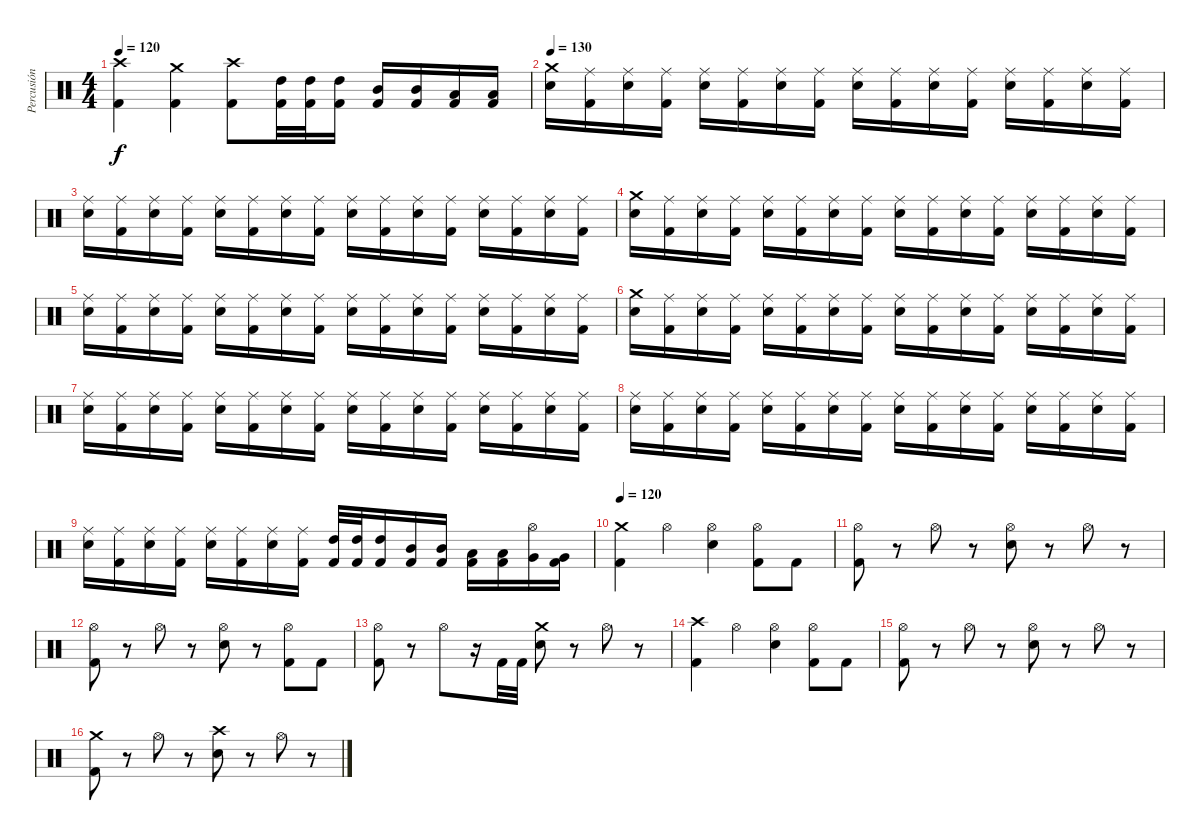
\track ("Percusión" "Percusión") {instrument percussion}
\staff {score}
\articulation defaults
\ts (4 4)
\tempo 120
\clef neutral
\ks c
("Crash high (hit)" "Kick (hit) 2").4{dy f} ("Crash medium (hit)" "Kick (hit) 2").4 ("Crash high (hit)" "Kick (hit) 2").8 ("High Tom (hit)" "Kick (hit) 2").32 ("High Tom (hit)" "Kick (hit) 2").32 ("High Tom (hit)" "Kick (hit) 2").16 ("Mid Tom (hit)" "Kick (hit) 2").16 ("Mid Tom (hit)" "Kick (hit) 2").16 ("Low Tom (hit)" "Kick (hit) 2").16 ("Low Tom (hit)" "Kick (hit) 2").16 |
\tempo 130
("Crash medium (hit)" "Electric Snare (hit)").16 ("Ride (middle)" "Kick (hit) 2").16 ("Ride (middle)" "Electric Snare (hit)").16 ("Ride (middle)" "Kick (hit) 2").16 ("Ride (middle)" "Electric Snare (hit)").16 ("Ride (middle)" "Kick (hit) 2").16 ("Ride (middle)" "Electric Snare (hit)").16 ("Ride (middle)" "Kick (hit) 2").16 ("Ride (middle)" "Electric Snare (hit)").16 ("Ride (middle)" "Kick (hit) 2").16 ("Ride (middle)" "Electric Snare (hit)").16 ("Ride (middle)" "Kick (hit) 2").16 ("Ride (middle)" "Electric Snare (hit)").16 ("Ride (middle)" "Kick (hit) 2").16 ("Ride (middle)" "Electric Snare (hit)").16 ("Ride (middle)" "Kick (hit) 2").16 |
("Ride (middle)" "Electric Snare (hit)").16 ("Ride (middle)" "Kick (hit) 2").16 ("Ride (middle)" "Electric Snare (hit)").16 ("Ride (middle)" "Kick (hit) 2").16 ("Ride (middle)" "Electric Snare (hit)").16 ("Ride (middle)" "Kick (hit) 2").16 ("Ride (middle)" "Electric Snare (hit)").16 ("Ride (middle)" "Kick (hit) 2").16 ("Ride (middle)" "Electric Snare (hit)").16 ("Ride (middle)" "Kick (hit) 2").16 ("Ride (middle)" "Electric Snare (hit)").16 ("Ride (middle)" "Kick (hit) 2").16 ("Ride (middle)" "Electric Snare (hit)").16 ("Ride (middle)" "Kick (hit) 2").16 ("Ride (middle)" "Electric Snare (hit)").16 ("Ride (middle)" "Kick (hit) 2").16 |
("Crash medium (hit)" "Electric Snare (hit)").16 ("Ride (middle)" "Kick (hit) 2").16 ("Ride (middle)" "Electric Snare (hit)").16 ("Ride (middle)" "Kick (hit) 2").16 ("Ride (middle)" "Electric Snare (hit)").16 ("Ride (middle)" "Kick (hit) 2").16 ("Ride (middle)" "Electric Snare (hit)").16 ("Ride (middle)" "Kick (hit) 2").16 ("Ride (middle)" "Electric Snare (hit)").16 ("Ride (middle)" "Kick (hit) 2").16 ("Ride (middle)" "Electric Snare (hit)").16 ("Ride (middle)" "Kick (hit) 2").16 ("Ride (middle)" "Electric Snare (hit)").16 ("Ride (middle)" "Kick (hit) 2").16 ("Ride (middle)" "Electric Snare (hit)").16 ("Ride (middle)" "Kick (hit) 2").16 |
("Ride (middle)" "Electric Snare (hit)").16 ("Ride (middle)" "Kick (hit) 2").16 ("Ride (middle)" "Electric Snare (hit)").16 ("Ride (middle)" "Kick (hit) 2").16 ("Ride (middle)" "Electric Snare (hit)").16 ("Ride (middle)" "Kick (hit) 2").16 ("Ride (middle)" "Electric Snare (hit)").16 ("Ride (middle)" "Kick (hit) 2").16 ("Ride (middle)" "Electric Snare (hit)").16 ("Ride (middle)" "Kick (hit) 2").16 ("Ride (middle)" "Electric Snare (hit)").16 ("Ride (middle)" "Kick (hit) 2").16 ("Ride (middle)" "Electric Snare (hit)").16 ("Ride (middle)" "Kick (hit) 2").16 ("Ride (middle)" "Electric Snare (hit)").16 ("Ride (middle)" "Kick (hit) 2").16 |
("Crash medium (hit)" "Electric Snare (hit)").16 ("Ride (middle)" "Kick (hit) 2").16 ("Ride (middle)" "Electric Snare (hit)").16 ("Ride (middle)" "Kick (hit) 2").16 ("Ride (middle)" "Electric Snare (hit)").16 ("Ride (middle)" "Kick (hit) 2").16 ("Ride (middle)" "Electric Snare (hit)").16 ("Ride (middle)" "Kick (hit) 2").16 ("Ride (middle)" "Electric Snare (hit)").16 ("Ride (middle)" "Kick (hit) 2").16 ("Ride (middle)" "Electric Snare (hit)").16 ("Ride (middle)" "Kick (hit) 2").16 ("Ride (middle)" "Electric Snare (hit)").16 ("Ride (middle)" "Kick (hit) 2").16 ("Ride (middle)" "Electric Snare (hit)").16 ("Ride (middle)" "Kick (hit) 2").16 |
("Ride (middle)" "Electric Snare (hit)").16 ("Ride (middle)" "Kick (hit) 2").16 ("Ride (middle)" "Electric Snare (hit)").16 ("Ride (middle)" "Kick (hit) 2").16 ("Ride (middle)" "Electric Snare (hit)").16 ("Ride (middle)" "Kick (hit) 2").16 ("Ride (middle)" "Electric Snare (hit)").16 ("Ride (middle)" "Kick (hit) 2").16 ("Ride (middle)" "Electric Snare (hit)").16 ("Ride (middle)" "Kick (hit) 2").16 ("Ride (middle)" "Electric Snare (hit)").16 ("Ride (middle)" "Kick (hit) 2").16 ("Ride (middle)" "Electric Snare (hit)").16 ("Ride (middle)" "Kick (hit) 2").16 ("Ride (middle)" "Electric Snare (hit)").16 ("Ride (middle)" "Kick (hit) 2").16 |
("Ride (middle)" "Electric Snare (hit)").16 ("Ride (middle)" "Kick (hit) 2").16 ("Ride (middle)" "Electric Snare (hit)").16 ("Ride (middle)" "Kick (hit) 2").16 ("Ride (middle)" "Electric Snare (hit)").16 ("Ride (middle)" "Kick (hit) 2").16 ("Ride (middle)" "Electric Snare (hit)").16 ("Ride (middle)" "Kick (hit) 2").16 ("Ride (middle)" "Electric Snare (hit)").16 ("Ride (middle)" "Kick (hit) 2").16 ("Ride (middle)" "Electric Snare (hit)").16 ("Ride (middle)" "Kick (hit) 2").16 ("Ride (middle)" "Electric Snare (hit)").16 ("Ride (middle)" "Kick (hit) 2").16 ("Ride (middle)" "Electric Snare (hit)").16 ("Ride (middle)" "Kick (hit) 2").16 |
("Ride (middle)" "Electric Snare (hit)").16 ("Ride (middle)" "Kick (hit) 2").16 ("Ride (middle)" "Electric Snare (hit)").16 ("Ride (middle)" "Kick (hit) 2").16 ("Ride (middle)" "Electric Snare (hit)").16 ("Ride (middle)" "Kick (hit) 2").16 ("Ride (middle)" "Electric Snare (hit)").16 ("Ride (middle)" "Kick (hit) 2").16 ("High Tom (hit)" "Kick (hit) 2").32 ("High Tom (hit)" "Kick (hit) 2").32 ("High Tom (hit)" "Kick (hit) 2").16 ("Mid Tom (hit)" "Kick (hit) 2").16 ("Mid Tom (hit)" "Kick (hit) 2").16 ("Low Tom (hit)" "Kick (hit) 2").16 ("Low Tom (hit)" "Kick (hit) 2").16 ("Very Low Tom (hit)" "Hi-Hat (open)").16 ("Very Low Tom (hit)" "Kick (hit) 2").16 |
\tempo 120
("Crash medium (hit)" "Kick (hit) 2").4 "Hi-Hat (open)".4 ("Hi-Hat (open)" "Electric Snare (hit)").4 ("Hi-Hat (open)" "Kick (hit) 2").8 "Kick (hit) 2".8 |
("Hi-Hat (open)" "Kick (hit) 2").8 r.8 "Hi-Hat (open)".8 r.8 ("Hi-Hat (open)" "Electric Snare (hit)").8 r.8 "Hi-Hat (open)".8 r.8 |
("Hi-Hat (open)" "Kick (hit) 2").8 r.8 "Hi-Hat (open)".8 r.8 ("Hi-Hat (open)" "Electric Snare (hit)").8 r.8 ("Hi-Hat (open)" "Kick (hit) 2").8 "Kick (hit) 2".8 |
("Hi-Hat (open)" "Kick (hit) 2").8 r.8 "Hi-Hat (open)".8 r.16 "Kick (hit) 2".32 "Kick (hit) 2".32 ("Crash medium (hit)" "Electric Snare (hit)").8 r.8 "Hi-Hat (open)".8 r.8 |
("Crash high (hit)" "Kick (hit) 2").4 "Hi-Hat (open)".4 ("Hi-Hat (open)" "Electric Snare (hit)").4 ("Hi-Hat (open)" "Kick (hit) 2").8 "Kick (hit) 2".8 |
("Hi-Hat (open)" "Kick (hit) 2").8 r.8 "Hi-Hat (open)".8 r.8 ("Hi-Hat (open)" "Electric Snare (hit)").8 r.8 "Hi-Hat (open)".8 r.8 |
("Crash medium (hit)" "Kick (hit) 2").8 r.8 "Hi-Hat (open)".8 r.8 ("Crash high (hit)" "Electric Snare (hit)").8 r.8 "Hi-Hat (open)".8 r.8
